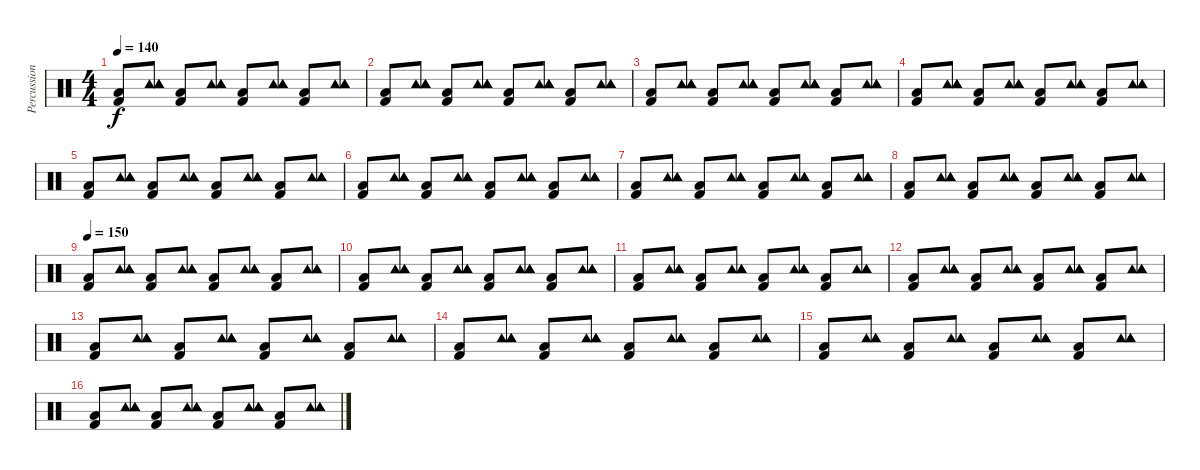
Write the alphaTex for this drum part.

\track ("Percussion" "Percussion") {instrument percussion}
\staff {score}
\articulation defaults
\ts (4 4)
\tempo 140
\clef neutral
\ks c
("Kick (hit) 2" "Low Floor Tom (hit)").8{dy f} ("Tambourine (hit)" "Tambourine (hit)" "Tambourine (hit)" "Tambourine (hit)").8 ("Kick (hit) 2" "Low Floor Tom (hit)").8 ("Tambourine (hit)" "Tambourine (hit)" "Tambourine (hit)" "Tambourine (hit)").8 ("Kick (hit) 2" "Low Floor Tom (hit)").8 ("Tambourine (hit)" "Tambourine (hit)" "Tambourine (hit)" "Tambourine (hit)").8 ("Kick (hit) 2" "Low Floor Tom (hit)").8 ("Tambourine (hit)" "Tambourine (hit)" "Tambourine (hit)" "Tambourine (hit)").8 |
("Kick (hit) 2" "Low Floor Tom (hit)").8 ("Tambourine (hit)" "Tambourine (hit)" "Tambourine (hit)" "Tambourine (hit)").8 ("Kick (hit) 2" "Low Floor Tom (hit)").8 ("Tambourine (hit)" "Tambourine (hit)" "Tambourine (hit)" "Tambourine (hit)").8 ("Kick (hit) 2" "Low Floor Tom (hit)").8 ("Tambourine (hit)" "Tambourine (hit)" "Tambourine (hit)" "Tambourine (hit)").8 ("Kick (hit) 2" "Low Floor Tom (hit)").8 ("Tambourine (hit)" "Tambourine (hit)" "Tambourine (hit)" "Tambourine (hit)").8 |
("Kick (hit) 2" "Low Floor Tom (hit)").8 ("Tambourine (hit)" "Tambourine (hit)" "Tambourine (hit)" "Tambourine (hit)").8 ("Kick (hit) 2" "Low Floor Tom (hit)").8 ("Tambourine (hit)" "Tambourine (hit)" "Tambourine (hit)" "Tambourine (hit)").8 ("Kick (hit) 2" "Low Floor Tom (hit)").8 ("Tambourine (hit)" "Tambourine (hit)" "Tambourine (hit)" "Tambourine (hit)").8 ("Kick (hit) 2" "Low Floor Tom (hit)").8 ("Tambourine (hit)" "Tambourine (hit)" "Tambourine (hit)" "Tambourine (hit)").8 |
("Kick (hit) 2" "Low Floor Tom (hit)").8 ("Tambourine (hit)" "Tambourine (hit)" "Tambourine (hit)" "Tambourine (hit)").8 ("Kick (hit) 2" "Low Floor Tom (hit)").8 ("Tambourine (hit)" "Tambourine (hit)" "Tambourine (hit)" "Tambourine (hit)").8 ("Kick (hit) 2" "Low Floor Tom (hit)").8 ("Tambourine (hit)" "Tambourine (hit)" "Tambourine (hit)" "Tambourine (hit)").8 ("Kick (hit) 2" "Low Floor Tom (hit)").8 ("Tambourine (hit)" "Tambourine (hit)" "Tambourine (hit)" "Tambourine (hit)").8 |
("Kick (hit) 2" "Low Floor Tom (hit)").8 ("Tambourine (hit)" "Tambourine (hit)" "Tambourine (hit)" "Tambourine (hit)").8 ("Kick (hit) 2" "Low Floor Tom (hit)").8 ("Tambourine (hit)" "Tambourine (hit)" "Tambourine (hit)" "Tambourine (hit)").8 ("Kick (hit) 2" "Low Floor Tom (hit)").8 ("Tambourine (hit)" "Tambourine (hit)" "Tambourine (hit)" "Tambourine (hit)").8 ("Kick (hit) 2" "Low Floor Tom (hit)").8 ("Tambourine (hit)" "Tambourine (hit)" "Tambourine (hit)" "Tambourine (hit)").8 |
("Kick (hit) 2" "Low Floor Tom (hit)").8 ("Tambourine (hit)" "Tambourine (hit)" "Tambourine (hit)" "Tambourine (hit)").8 ("Kick (hit) 2" "Low Floor Tom (hit)").8 ("Tambourine (hit)" "Tambourine (hit)" "Tambourine (hit)" "Tambourine (hit)").8 ("Kick (hit) 2" "Low Floor Tom (hit)").8 ("Tambourine (hit)" "Tambourine (hit)" "Tambourine (hit)" "Tambourine (hit)").8 ("Kick (hit) 2" "Low Floor Tom (hit)").8 ("Tambourine (hit)" "Tambourine (hit)" "Tambourine (hit)" "Tambourine (hit)").8 |
("Kick (hit) 2" "Low Floor Tom (hit)").8 ("Tambourine (hit)" "Tambourine (hit)" "Tambourine (hit)" "Tambourine (hit)").8 ("Kick (hit) 2" "Low Floor Tom (hit)").8 ("Tambourine (hit)" "Tambourine (hit)" "Tambourine (hit)" "Tambourine (hit)").8 ("Kick (hit) 2" "Low Floor Tom (hit)").8 ("Tambourine (hit)" "Tambourine (hit)" "Tambourine (hit)" "Tambourine (hit)").8 ("Kick (hit) 2" "Low Floor Tom (hit)").8 ("Tambourine (hit)" "Tambourine (hit)" "Tambourine (hit)" "Tambourine (hit)").8 |
("Kick (hit) 2" "Low Floor Tom (hit)").8 ("Tambourine (hit)" "Tambourine (hit)" "Tambourine (hit)" "Tambourine (hit)").8 ("Kick (hit) 2" "Low Floor Tom (hit)").8 ("Tambourine (hit)" "Tambourine (hit)" "Tambourine (hit)" "Tambourine (hit)").8 ("Kick (hit) 2" "Low Floor Tom (hit)").8 ("Tambourine (hit)" "Tambourine (hit)" "Tambourine (hit)" "Tambourine (hit)").8 ("Kick (hit) 2" "Low Floor Tom (hit)").8 ("Tambourine (hit)" "Tambourine (hit)" "Tambourine (hit)" "Tambourine (hit)").8 |
\tempo 150
("Kick (hit) 2" "Low Floor Tom (hit)").8 ("Tambourine (hit)" "Tambourine (hit)" "Tambourine (hit)" "Tambourine (hit)").8 ("Kick (hit) 2" "Low Floor Tom (hit)").8 ("Tambourine (hit)" "Tambourine (hit)" "Tambourine (hit)" "Tambourine (hit)").8 ("Kick (hit) 2" "Low Floor Tom (hit)").8 ("Tambourine (hit)" "Tambourine (hit)" "Tambourine (hit)" "Tambourine (hit)").8 ("Kick (hit) 2" "Low Floor Tom (hit)").8 ("Tambourine (hit)" "Tambourine (hit)" "Tambourine (hit)" "Tambourine (hit)").8 |
("Kick (hit) 2" "Low Floor Tom (hit)").8 ("Tambourine (hit)" "Tambourine (hit)" "Tambourine (hit)" "Tambourine (hit)").8 ("Kick (hit) 2" "Low Floor Tom (hit)").8 ("Tambourine (hit)" "Tambourine (hit)" "Tambourine (hit)" "Tambourine (hit)").8 ("Kick (hit) 2" "Low Floor Tom (hit)").8 ("Tambourine (hit)" "Tambourine (hit)" "Tambourine (hit)" "Tambourine (hit)").8 ("Kick (hit) 2" "Low Floor Tom (hit)").8 ("Tambourine (hit)" "Tambourine (hit)" "Tambourine (hit)" "Tambourine (hit)").8 |
("Kick (hit) 2" "Low Floor Tom (hit)").8 ("Tambourine (hit)" "Tambourine (hit)" "Tambourine (hit)" "Tambourine (hit)").8 ("Kick (hit) 2" "Low Floor Tom (hit)").8 ("Tambourine (hit)" "Tambourine (hit)" "Tambourine (hit)" "Tambourine (hit)").8 ("Kick (hit) 2" "Low Floor Tom (hit)").8 ("Tambourine (hit)" "Tambourine (hit)" "Tambourine (hit)" "Tambourine (hit)").8 ("Kick (hit) 2" "Low Floor Tom (hit)").8 ("Tambourine (hit)" "Tambourine (hit)" "Tambourine (hit)" "Tambourine (hit)").8 |
("Kick (hit) 2" "Low Floor Tom (hit)").8 ("Tambourine (hit)" "Tambourine (hit)" "Tambourine (hit)" "Tambourine (hit)").8 ("Kick (hit) 2" "Low Floor Tom (hit)").8 ("Tambourine (hit)" "Tambourine (hit)" "Tambourine (hit)" "Tambourine (hit)").8 ("Kick (hit) 2" "Low Floor Tom (hit)").8 ("Tambourine (hit)" "Tambourine (hit)" "Tambourine (hit)" "Tambourine (hit)").8 ("Kick (hit) 2" "Low Floor Tom (hit)").8 ("Tambourine (hit)" "Tambourine (hit)" "Tambourine (hit)" "Tambourine (hit)").8 |
("Kick (hit) 2" "Low Floor Tom (hit)").8 ("Tambourine (hit)" "Tambourine (hit)" "Tambourine (hit)" "Tambourine (hit)").8 ("Kick (hit) 2" "Low Floor Tom (hit)").8 ("Tambourine (hit)" "Tambourine (hit)" "Tambourine (hit)" "Tambourine (hit)").8 ("Kick (hit) 2" "Low Floor Tom (hit)").8 ("Tambourine (hit)" "Tambourine (hit)" "Tambourine (hit)" "Tambourine (hit)").8 ("Kick (hit) 2" "Low Floor Tom (hit)").8 ("Tambourine (hit)" "Tambourine (hit)" "Tambourine (hit)" "Tambourine (hit)").8 |
("Kick (hit) 2" "Low Floor Tom (hit)").8 ("Tambourine (hit)" "Tambourine (hit)" "Tambourine (hit)" "Tambourine (hit)").8 ("Kick (hit) 2" "Low Floor Tom (hit)").8 ("Tambourine (hit)" "Tambourine (hit)" "Tambourine (hit)" "Tambourine (hit)").8 ("Kick (hit) 2" "Low Floor Tom (hit)").8 ("Tambourine (hit)" "Tambourine (hit)" "Tambourine (hit)" "Tambourine (hit)").8 ("Kick (hit) 2" "Low Floor Tom (hit)").8 ("Tambourine (hit)" "Tambourine (hit)" "Tambourine (hit)" "Tambourine (hit)").8 |
("Kick (hit) 2" "Low Floor Tom (hit)").8 ("Tambourine (hit)" "Tambourine (hit)" "Tambourine (hit)" "Tambourine (hit)").8 ("Kick (hit) 2" "Low Floor Tom (hit)").8 ("Tambourine (hit)" "Tambourine (hit)" "Tambourine (hit)" "Tambourine (hit)").8 ("Kick (hit) 2" "Low Floor Tom (hit)").8 ("Tambourine (hit)" "Tambourine (hit)" "Tambourine (hit)" "Tambourine (hit)").8 ("Kick (hit) 2" "Low Floor Tom (hit)").8 ("Tambourine (hit)" "Tambourine (hit)" "Tambourine (hit)" "Tambourine (hit)").8 |
("Kick (hit) 2" "Low Floor Tom (hit)").8 ("Tambourine (hit)" "Tambourine (hit)" "Tambourine (hit)" "Tambourine (hit)").8 ("Kick (hit) 2" "Low Floor Tom (hit)").8 ("Tambourine (hit)" "Tambourine (hit)" "Tambourine (hit)" "Tambourine (hit)").8 ("Kick (hit) 2" "Low Floor Tom (hit)").8 ("Tambourine (hit)" "Tambourine (hit)" "Tambourine (hit)" "Tambourine (hit)").8 ("Kick (hit) 2" "Low Floor Tom (hit)").8 ("Tambourine (hit)" "Tambourine (hit)" "Tambourine (hit)" "Tambourine (hit)").8
